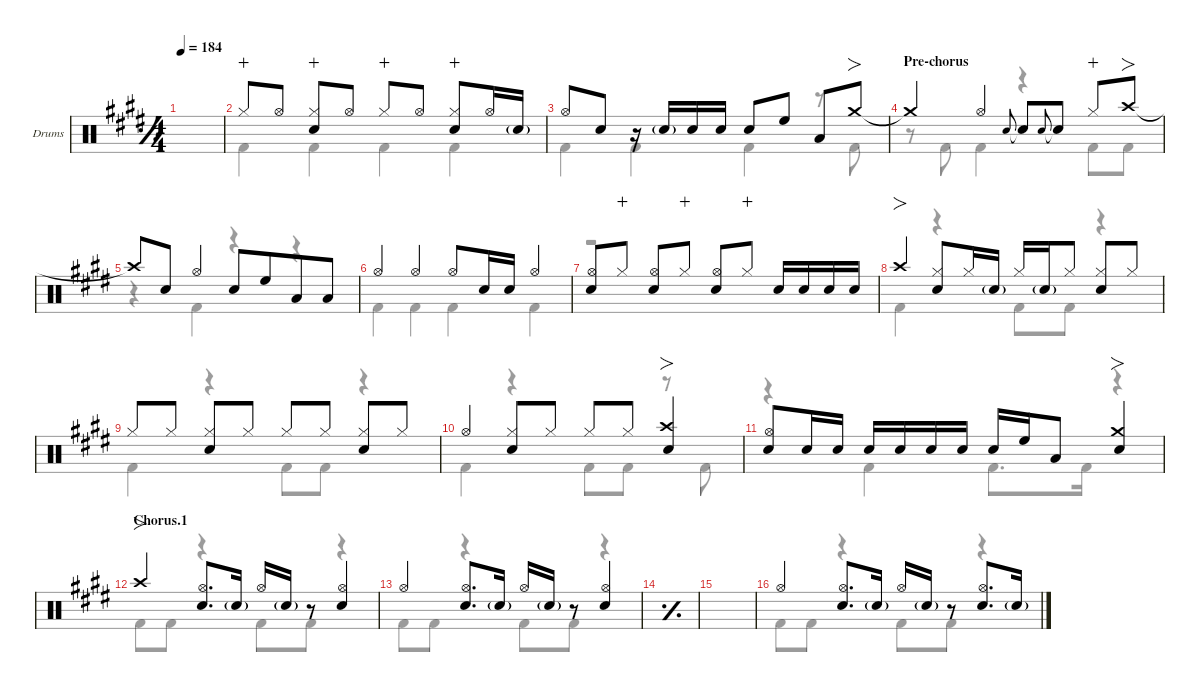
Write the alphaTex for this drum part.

\defaultSystemsLayout 4
\hideDynamics
\bracketExtendMode nobrackets
\firstSystemTrackNameOrientation horizontal
\track ("Drums" "Drums") {defaultSystemsLayout 4 instrument percussion}
\staff {score}
\articulation defaults
\voice
\ts (4 4)
\tempo 184
\clef neutral
\simile simple
\ks e
|
\simile none "Hi-Hat (closed)"{acc forcenatural}.8{dy mp wahc} "Hi-Hat (open)"{acc forcenatural}.8{dy f}
("Hi-Hat (closed)"{acc forcenatural} "Snare (hit) 2"{acc forcenatural}).8{wahc} "Hi-Hat (open)"{acc forcenatural}.8 "Hi-Hat (closed)"{acc forcenatural}.8{dy mp wahc} "Hi-Hat (open)"{acc forcenatural}.8{dy f beam split} ("Hi-Hat (closed)"{acc forcenatural} "Snare (hit) 2"{acc forcenatural}).8{wahc} "Hi-Hat (open)"{acc forcenatural}.16 "Snare (hit) 2"{g acc forcenatural}.16{dy mf} |
"Hi-Hat (open)"{acc forcenatural}.8{dy f} "Snare (hit) 2"{acc forcenatural}.8{beam split} r.16{beam split} "Snare (hit) 2"{g acc forcenatural}.16{dy mf} "Snare (hit) 2"{acc forcenatural}.16{dy f} "Snare (hit) 2"{acc forcenatural}.16{dy mf} "Snare (hit) 2"{acc forcenatural}.8{dy f} "High Floor Tom (hit)"{acc forcenatural}.8 "Low Tom (hit)"{acc forcenatural}.8 "Crash medium (hit)"{acc forcenatural}.8{fo} |
\section ("" "Pre-chorus")
"Crash medium (hit)"{t acc forcenatural}.4 "Hi-Hat (open)"{acc forcenatural}.4 "Snare (hit) 2"{acc forcenatural}.8{gr onbeat} "Snare (hit) 2"{t acc forcenatural}.8 "Snare (hit) 2"{acc forcenatural}.8{gr onbeat} "Snare (hit) 2"{t acc forcenatural}.8 "Hi-Hat (closed)"{acc forcenatural}.8{dy mp wahc} "Crash high (hit)"{acc forcenatural}.8{fo dy f} |
"Crash high (hit)"{t acc forcenatural}.8 "Snare (hit) 2"{acc forcenatural}.8 "Hi-Hat (open)"{acc forcenatural}.4 "Snare (hit) 2"{acc forcenatural}.8{beam merge} "High Floor Tom (hit)"{acc forcenatural}.8{beam merge} "Low Tom (hit)"{acc forcenatural}.8{beam merge} "Low Tom (hit)"{acc forcenatural}.8 |
"Hi-Hat (open)"{acc forcenatural}.4 "Hi-Hat (open)"{acc forcenatural}.4 "Hi-Hat (open)"{acc forcenatural}.8 "Snare (hit) 2"{acc forcenatural}.16 "Snare (hit) 2"{acc forcenatural}.16{dy mf} "Hi-Hat (open)"{acc forcenatural}.4{dy f} |
("Hi-Hat (open)"{acc forcenatural} "Snare (hit) 2"{acc forcenatural}).8 "Hi-Hat (closed)"{acc forcenatural}.8{dy mp wahc} ("Hi-Hat (open)"{acc forcenatural} "Snare (hit) 2"{acc forcenatural}).8{dy f} "Hi-Hat (closed)"{acc forcenatural}.8{dy mp wahc} ("Hi-Hat (open)"{acc forcenatural} "Snare (hit) 2"{acc forcenatural}).8{dy f} "Hi-Hat (closed)"{acc forcenatural}.8{dy mp wahc beam split} "Snare (hit) 2"{acc forcenatural}.16{dy f} "Snare (hit) 2"{acc forcenatural}.16{dy mf} "Snare (hit) 2"{acc forcenatural}.16{dy f} "Snare (hit) 2"{acc forcenatural}.16{dy mf} |
"Crash high (hit)"{acc forcenatural}.4{fo dy f} ("Hi-Hat (closed)"{acc forcenatural} "Snare (hit) 2"{acc forcenatural}).8 "Hi-Hat (closed)"{acc forcenatural}.16{dy mf} "Snare (hit) 2"{g acc forcenatural}.16 "Hi-Hat (closed)"{acc forcenatural}.16{dy f} "Snare (hit) 2"{g acc forcenatural}.16{dy mf} "Hi-Hat (closed)"{acc forcenatural}.8{beam split} ("Hi-Hat (closed)"{acc forcenatural} "Snare (hit) 2"{acc forcenatural}).8{dy f} "Hi-Hat (closed)"{acc forcenatural}.8{dy mf} |
"Hi-Hat (closed)"{acc forcenatural}.8{dy f} "Hi-Hat (closed)"{acc forcenatural}.8{dy mf} ("Hi-Hat (closed)"{acc forcenatural} "Snare (hit) 2"{acc forcenatural}).8{dy f} "Hi-Hat (closed)"{acc forcenatural}.8{dy mf} "Hi-Hat (closed)"{acc forcenatural}.8{dy f} "Hi-Hat (closed)"{acc forcenatural}.8{dy mf} ("Hi-Hat (closed)"{acc forcenatural} "Snare (hit) 2"{acc forcenatural}).8{dy f} "Hi-Hat (closed)"{acc forcenatural}.8{dy mf} |
"Hi-Hat (open)"{acc forcenatural}.4{dy f} ("Hi-Hat (closed)"{acc forcenatural} "Snare (hit) 2"{acc forcenatural}).8 "Hi-Hat (closed)"{acc forcenatural}.8{dy mf} "Hi-Hat (closed)"{acc forcenatural}.8{dy f} "Hi-Hat (closed)"{acc forcenatural}.8{dy mf beam split} ("Crash high (hit)"{acc forcenatural} "Snare (hit) 2"{acc forcenatural}).4{fo dy f} |
("Hi-Hat (open)"{acc forcenatural} "Snare (hit) 2"{acc forcenatural}).8 "Snare (hit) 2"{acc forcenatural}.16 "Snare (hit) 2"{acc forcenatural}.16{dy mf beam split} "Snare (hit) 2"{acc forcenatural}.16{dy f} "Snare (hit) 2"{acc forcenatural}.16{dy mf} "Snare (hit) 2"{acc forcenatural}.16{dy f} "Snare (hit) 2"{acc forcenatural}.16{dy mf} "Snare (hit) 2"{acc forcenatural}.16{dy f} "High Floor Tom (hit)"{acc forcenatural}.16 "Low Tom (hit)"{acc forcenatural}.8{beam split} ("Snare (hit) 2"{acc forcenatural} "Crash medium (hit)"{acc forcenatural}).4{fo} |
\section ("" "Chorus.1")
"Crash high (hit)"{acc forcenatural}.4{fo} ("Hi-Hat (open)"{acc forcenatural} "Snare (hit) 2"{acc forcenatural}).8{d} "Snare (hit) 2"{g acc forcenatural}.16{dy mf} "Hi-Hat (open)"{acc forcenatural}.16{dy f} "Snare (hit) 2"{g acc forcenatural}.16{dy mf beam split} r.8 ("Hi-Hat (open)"{acc forcenatural} "Snare (hit) 2"{acc forcenatural}).4{dy f} |
"Hi-Hat (open)"{acc forcenatural}.4 ("Hi-Hat (open)"{acc forcenatural} "Snare (hit) 2"{acc forcenatural}).8{d} "Snare (hit) 2"{g acc forcenatural}.16{dy mf} "Hi-Hat (open)"{acc forcenatural}.16{dy f} "Snare (hit) 2"{g acc forcenatural}.16{dy mf beam split} r.8 ("Hi-Hat (open)"{acc forcenatural} "Snare (hit) 2"{acc forcenatural}).4{dy f} |
\simile simple
|
|
\simile none "Hi-Hat (open)"{acc forcenatural}.4
("Hi-Hat (open)"{acc forcenatural} "Snare (hit) 2"{acc forcenatural}).8{d} "Snare (hit) 2"{g acc forcenatural}.16{dy mf} "Hi-Hat (open)"{acc forcenatural}.16{dy f} "Snare (hit) 2"{g acc forcenatural}.16{dy mf beam split} r.8 ("Hi-Hat (open)"{acc forcenatural} "Snare (hit) 2"{acc forcenatural}).8{d dy f} "Snare (hit) 2"{g acc forcenatural}.16{dy mf}
\voice
\clef neutral
\ottava regular
\simile simple
\ks e
|
\simile none "Kick (hit) 2"{acc forcenatural}.4 "Kick (hit) 2"{acc forcenatural}.4 "Kick (hit) 2"{acc forcenatural}.4 "Kick (hit) 2"{acc forcenatural}.4
|
"Kick (hit) 2"{acc forcenatural}.4 "Kick (hit) 2"{acc forcenatural}.4 "Kick (hit) 2"{acc forcenatural}.4 r.8 "Kick (hit) 2"{acc forcenatural}.8 |
r.8 "Kick (hit) 2"{acc forcenatural}.8 "Kick (hit) 2"{acc forcenatural}.4 r.4 "Kick (hit) 2"{acc forcenatural}.8 "Kick (hit) 2"{acc forcenatural}.8 |
r.4 "Kick (hit) 2"{acc forcenatural}.4 r.4 r.4 |
"Kick (hit) 2"{acc forcenatural}.4 "Kick (hit) 2"{acc forcenatural}.4 "Kick (hit) 2"{acc forcenatural}.4 "Kick (hit) 2"{acc forcenatural}.4 |
r.1 |
"Kick (hit) 2"{acc forcenatural}.4 r.4 "Kick (hit) 2"{acc forcenatural}.8 "Kick (hit) 2"{acc forcenatural}.8 r.4 |
"Kick (hit) 2"{acc forcenatural}.4 r.4 "Kick (hit) 2"{acc forcenatural}.8 "Kick (hit) 2"{acc forcenatural}.8 r.4 |
"Kick (hit) 2"{acc forcenatural}.4 r.4 "Kick (hit) 2"{acc forcenatural}.8 "Kick (hit) 2"{acc forcenatural}.8 r.8 "Kick (hit) 2"{acc forcenatural}.8 |
r.4 "Kick (hit) 2"{acc forcenatural}.4 "Kick (hit) 2"{acc forcenatural}.8{d} "Kick (hit) 2"{acc forcenatural}.16 r.4 |
"Kick (hit) 2"{acc forcenatural}.8 "Kick (hit) 2"{acc forcenatural}.8 r.4 "Kick (hit) 2"{acc forcenatural}.8 "Kick (hit) 2"{acc forcenatural}.8 r.4 |
"Kick (hit) 2"{acc forcenatural}.8 "Kick (hit) 2"{acc forcenatural}.8 r.4 "Kick (hit) 2"{acc forcenatural}.8 "Kick (hit) 2"{acc forcenatural}.8 r.4 |
\simile simple
|
|
\simile none "Kick (hit) 2"{acc forcenatural}.8 "Kick (hit) 2"{acc forcenatural}.8
r.4 "Kick (hit) 2"{acc forcenatural}.8 "Kick (hit) 2"{acc forcenatural}.8 r.4
